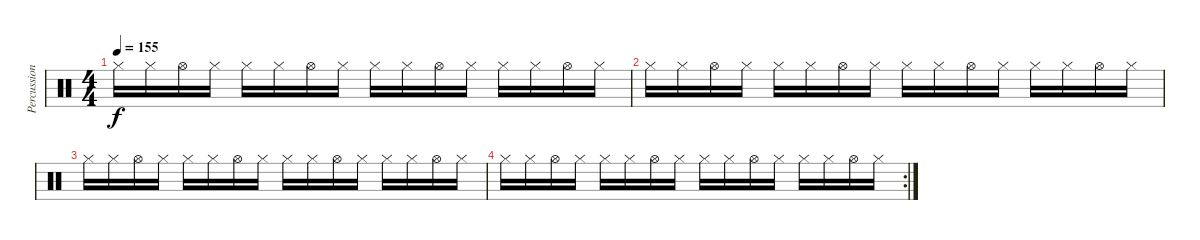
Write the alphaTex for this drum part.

\track ("Percussion" "Percussion") {instrument percussion}
\staff {score}
\articulation defaults
\ts (4 4)
\tempo 155
\clef neutral
\ks c "Hi-Hat (closed)".16{dy f} "Hi-Hat (closed)".16 "Hi-Hat (open)".16 "Hi-Hat (closed)".16 "Hi-Hat (closed)".16 "Hi-Hat (closed)".16 "Hi-Hat (open)".16 "Hi-Hat (closed)".16 "Hi-Hat (closed)".16 "Hi-Hat (closed)".16 "Hi-Hat (open)".16 "Hi-Hat (closed)".16 "Hi-Hat (closed)".16 "Hi-Hat (closed)".16 "Hi-Hat (open)".16 "Hi-Hat (closed)".16
|
"Hi-Hat (closed)".16 "Hi-Hat (closed)".16 "Hi-Hat (open)".16 "Hi-Hat (closed)".16 "Hi-Hat (closed)".16 "Hi-Hat (closed)".16 "Hi-Hat (open)".16 "Hi-Hat (closed)".16 "Hi-Hat (closed)".16 "Hi-Hat (closed)".16 "Hi-Hat (open)".16 "Hi-Hat (closed)".16 "Hi-Hat (closed)".16 "Hi-Hat (closed)".16 "Hi-Hat (open)".16 "Hi-Hat (closed)".16 |
"Hi-Hat (closed)".16 "Hi-Hat (closed)".16 "Hi-Hat (open)".16 "Hi-Hat (closed)".16 "Hi-Hat (closed)".16 "Hi-Hat (closed)".16 "Hi-Hat (open)".16 "Hi-Hat (closed)".16 "Hi-Hat (closed)".16 "Hi-Hat (closed)".16 "Hi-Hat (open)".16 "Hi-Hat (closed)".16 "Hi-Hat (closed)".16 "Hi-Hat (closed)".16 "Hi-Hat (open)".16 "Hi-Hat (closed)".16 |
\rc 2 "Hi-Hat (closed)".16 "Hi-Hat (closed)".16 "Hi-Hat (open)".16 "Hi-Hat (closed)".16 "Hi-Hat (closed)".16 "Hi-Hat (closed)".16 "Hi-Hat (open)".16 "Hi-Hat (closed)".16 "Hi-Hat (closed)".16 "Hi-Hat (closed)".16 "Hi-Hat (open)".16 "Hi-Hat (closed)".16 "Hi-Hat (closed)".16 "Hi-Hat (closed)".16 "Hi-Hat (open)".16 "Hi-Hat (closed)".16
